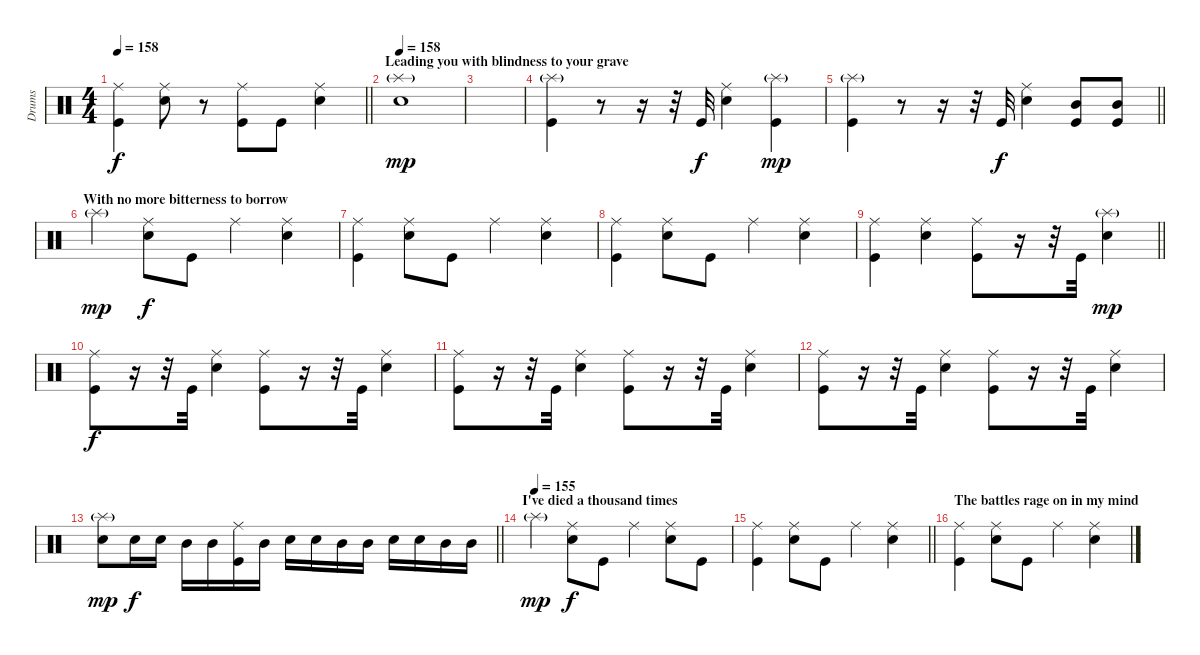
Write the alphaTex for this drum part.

\track ("Drums" "Drums") {instrument percussion}
\staff {score}
\articulation defaults
\ts (4 4)
\tempo 158
\clef neutral
\barLineRight lightlight
\ks c
("Ride (middle)" "Kick (hit)").4{dy f} ("Ride (middle)" "Snare (hit) 2").8 r.8 ("Ride (middle)" "Kick (hit)").8 "Kick (hit)".8 ("Ride (middle)" "Snare (hit) 2").4 |
\section ("" "Leading you with blindness to your grave")
\tempo 160
\tempo 158
("Splash (hit)"{g} "Snare (hit) 2").1{dy mp} |
|
("Splash (hit)"{g} "Kick (hit)").4 r.8 r.16 r.32 "Kick (hit)".32{dy f} ("Ride (middle)" "Snare (hit) 2").4 ("Splash (hit)"{g} "Kick (hit)").4{dy mp} |
\barLineRight lightlight
("Splash (hit)"{g} "Kick (hit)").4 r.8 r.16 r.32 "Kick (hit)".32{dy f} ("Ride (middle)" "Snare (hit) 2").4 ("Mid Tom (hit)" "Kick (hit)").8 ("Mid Tom (hit)" "Kick (hit)").8 |
\section ("" "With no more bitterness to borrow")
"Splash (hit)"{g}.4{dy mp} ("Ride (middle)" "Snare (hit) 2").8{dy f} "Kick (hit)".8 "Ride (middle)".4 ("Ride (middle)" "Snare (hit) 2").4 |
("Ride (middle)" "Kick (hit)").4 ("Ride (middle)" "Snare (hit) 2").8 "Kick (hit)".8 "Ride (middle)".4 ("Ride (middle)" "Snare (hit) 2").4 |
("Ride (middle)" "Kick (hit)").4 ("Ride (middle)" "Snare (hit) 2").8 "Kick (hit)".8 "Ride (middle)".4 ("Ride (middle)" "Snare (hit) 2").4 |
\barLineRight lightlight
("Ride (middle)" "Kick (hit)").4 ("Ride (middle)" "Snare (hit) 2").4 ("Ride (middle)" "Kick (hit)").8 r.16 r.32 "Kick (hit)".32 ("Splash (hit)"{g} "Snare (hit) 2").4{dy mp} |
("Ride (middle)" "Kick (hit)").8{dy f} r.16 r.32 "Kick (hit)".32 ("Ride (middle)" "Snare (hit) 2").4 ("Ride (middle)" "Kick (hit)").8 r.16 r.32 "Kick (hit)".32 ("Ride (middle)" "Snare (hit) 2").4 |
("Ride (middle)" "Kick (hit)").8 r.16 r.32 "Kick (hit)".32 ("Ride (middle)" "Snare (hit) 2").4 ("Ride (middle)" "Kick (hit)").8 r.16 r.32 "Kick (hit)".32 ("Ride (middle)" "Snare (hit) 2").4 |
("Ride (middle)" "Kick (hit)").8 r.16 r.32 "Kick (hit)".32 ("Ride (middle)" "Snare (hit) 2").4 ("Ride (middle)" "Kick (hit)").8 r.16 r.32 "Kick (hit)".32 ("Ride (middle)" "Snare (hit) 2").4 |
\barLineRight lightlight
("Splash (hit)"{g} "Snare (hit) 2").8{dy mp} "Snare (hit) 2".16{dy f} "Snare (hit) 2".16 "Mid Tom (hit)".16 "Mid Tom (hit)".16 ("Ride (middle)" "Kick (hit)").16 "Mid Tom (hit)".16 "Snare (hit) 2".16 "Snare (hit) 2".16 "Mid Tom (hit)".16 "Mid Tom (hit)".16 "Snare (hit) 2".16 "Snare (hit) 2".16 "Mid Tom (hit)".16 "Mid Tom (hit)".16 |
\section ("" "I've died a thousand times")
\tempo (155)
"Splash (hit)"{g}.4{dy mp} ("Ride (middle)" "Snare (hit) 2").8{dy f} "Kick (hit)".8 "Ride (middle)".4 ("Ride (middle)" "Snare (hit) 2").8 "Kick (hit)".8 |
\barLineRight lightlight
("Ride (middle)" "Kick (hit)").4 ("Ride (middle)" "Snare (hit) 2").8 "Kick (hit)".8 "Ride (middle)".4 ("Ride (middle)" "Snare (hit) 2").4 |
\section ("" "The battles rage on in my mind")
("Ride (middle)" "Kick (hit)").4 ("Ride (middle)" "Snare (hit) 2").8 "Kick (hit)".8 "Ride (middle)".4 ("Ride (middle)" "Snare (hit) 2").4
